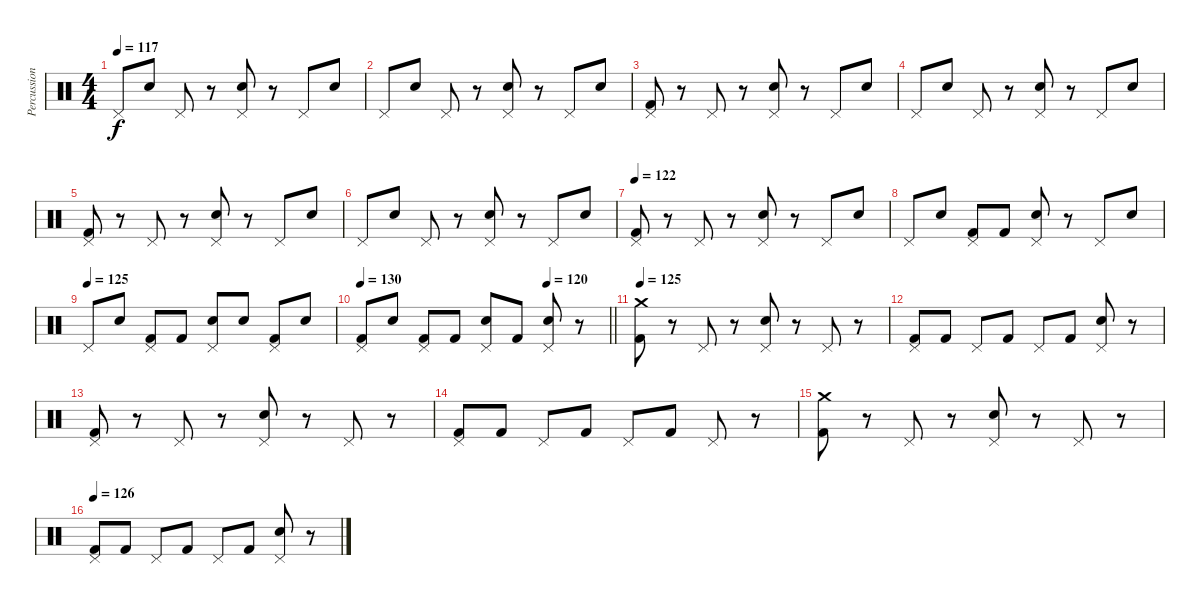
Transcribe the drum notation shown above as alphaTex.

\track ("Percussion" "Percussion") {instrument percussion}
\staff {score}
\articulation defaults
\ts (4 4)
\tempo 117
\clef neutral
\ks c "Pedal Hi-Hat (hit)".8{dy f} "Electric Snare (hit)".8 "Pedal Hi-Hat (hit)".8
r.8 ("Pedal Hi-Hat (hit)" "Electric Snare (hit)").8 r.8 "Pedal Hi-Hat (hit)".8 "Electric Snare (hit)".8 |
"Pedal Hi-Hat (hit)".8 "Electric Snare (hit)".8 "Pedal Hi-Hat (hit)".8 r.8 ("Pedal Hi-Hat (hit)" "Electric Snare (hit)").8 r.8 "Pedal Hi-Hat (hit)".8 "Electric Snare (hit)".8 |
("Pedal Hi-Hat (hit)" "Kick (hit) 2").8 r.8 "Pedal Hi-Hat (hit)".8 r.8 ("Pedal Hi-Hat (hit)" "Electric Snare (hit)").8 r.8 "Pedal Hi-Hat (hit)".8 "Electric Snare (hit)".8 |
"Pedal Hi-Hat (hit)".8 "Electric Snare (hit)".8 "Pedal Hi-Hat (hit)".8 r.8 ("Pedal Hi-Hat (hit)" "Electric Snare (hit)").8 r.8 "Pedal Hi-Hat (hit)".8 "Electric Snare (hit)".8 |
("Pedal Hi-Hat (hit)" "Kick (hit) 2").8 r.8 "Pedal Hi-Hat (hit)".8 r.8 ("Pedal Hi-Hat (hit)" "Electric Snare (hit)").8 r.8 "Pedal Hi-Hat (hit)".8 "Electric Snare (hit)".8 |
"Pedal Hi-Hat (hit)".8 "Electric Snare (hit)".8 "Pedal Hi-Hat (hit)".8 r.8 ("Pedal Hi-Hat (hit)" "Electric Snare (hit)").8 r.8 "Pedal Hi-Hat (hit)".8 "Electric Snare (hit)".8 |
\tempo 122
("Pedal Hi-Hat (hit)" "Kick (hit) 2").8 r.8 "Pedal Hi-Hat (hit)".8 r.8 ("Pedal Hi-Hat (hit)" "Electric Snare (hit)").8 r.8 "Pedal Hi-Hat (hit)".8 "Electric Snare (hit)".8 |
"Pedal Hi-Hat (hit)".8 "Electric Snare (hit)".8 ("Pedal Hi-Hat (hit)" "Kick (hit) 2").8 "Kick (hit) 2".8 ("Pedal Hi-Hat (hit)" "Electric Snare (hit)").8 r.8 "Pedal Hi-Hat (hit)".8 "Electric Snare (hit)".8 |
\tempo (125)
"Pedal Hi-Hat (hit)".8 "Electric Snare (hit)".8 ("Pedal Hi-Hat (hit)" "Kick (hit) 2").8 "Kick (hit) 2".8 ("Pedal Hi-Hat (hit)" "Electric Snare (hit)").8 "Electric Snare (hit)".8 ("Pedal Hi-Hat (hit)" "Kick (hit) 2").8 "Electric Snare (hit)".8 |
\tempo 130
\tempo (120 0.75)
\barLineRight lightlight
("Pedal Hi-Hat (hit)" "Kick (hit) 2").8 "Electric Snare (hit)".8 ("Pedal Hi-Hat (hit)" "Kick (hit) 2").8 "Kick (hit) 2".8 ("Pedal Hi-Hat (hit)" "Electric Snare (hit)").8 "Kick (hit) 2".8 ("Pedal Hi-Hat (hit)" "Electric Snare (hit)").8 r.8 |
\section ("" "")
\tempo 125
("Crash medium (hit)" "Kick (hit) 2").8 r.8 "Pedal Hi-Hat (hit)".8 r.8 ("Pedal Hi-Hat (hit)" "Electric Snare (hit)").8 r.8 "Pedal Hi-Hat (hit)".8 r.8 |
("Pedal Hi-Hat (hit)" "Kick (hit) 2").8 "Kick (hit) 2".8 "Pedal Hi-Hat (hit)".8 "Kick (hit) 2".8 "Pedal Hi-Hat (hit)".8 "Kick (hit) 2".8 ("Pedal Hi-Hat (hit)" "Electric Snare (hit)").8 r.8 |
("Pedal Hi-Hat (hit)" "Kick (hit) 2").8 r.8 "Pedal Hi-Hat (hit)".8 r.8 ("Pedal Hi-Hat (hit)" "Electric Snare (hit)").8 r.8 "Pedal Hi-Hat (hit)".8 r.8 |
("Pedal Hi-Hat (hit)" "Kick (hit) 2").8 "Kick (hit) 2".8 "Pedal Hi-Hat (hit)".8 "Kick (hit) 2".8 "Pedal Hi-Hat (hit)".8 "Kick (hit) 2".8 "Pedal Hi-Hat (hit)".8 r.8 |
("Crash medium (hit)" "Kick (hit) 2").8 r.8 "Pedal Hi-Hat (hit)".8 r.8 ("Pedal Hi-Hat (hit)" "Electric Snare (hit)").8 r.8 "Pedal Hi-Hat (hit)".8 r.8 |
\tempo 126
("Pedal Hi-Hat (hit)" "Kick (hit) 2").8 "Kick (hit) 2".8 "Pedal Hi-Hat (hit)".8 "Kick (hit) 2".8 "Pedal Hi-Hat (hit)".8 "Kick (hit) 2".8 ("Pedal Hi-Hat (hit)" "Electric Snare (hit)").8 r.8
